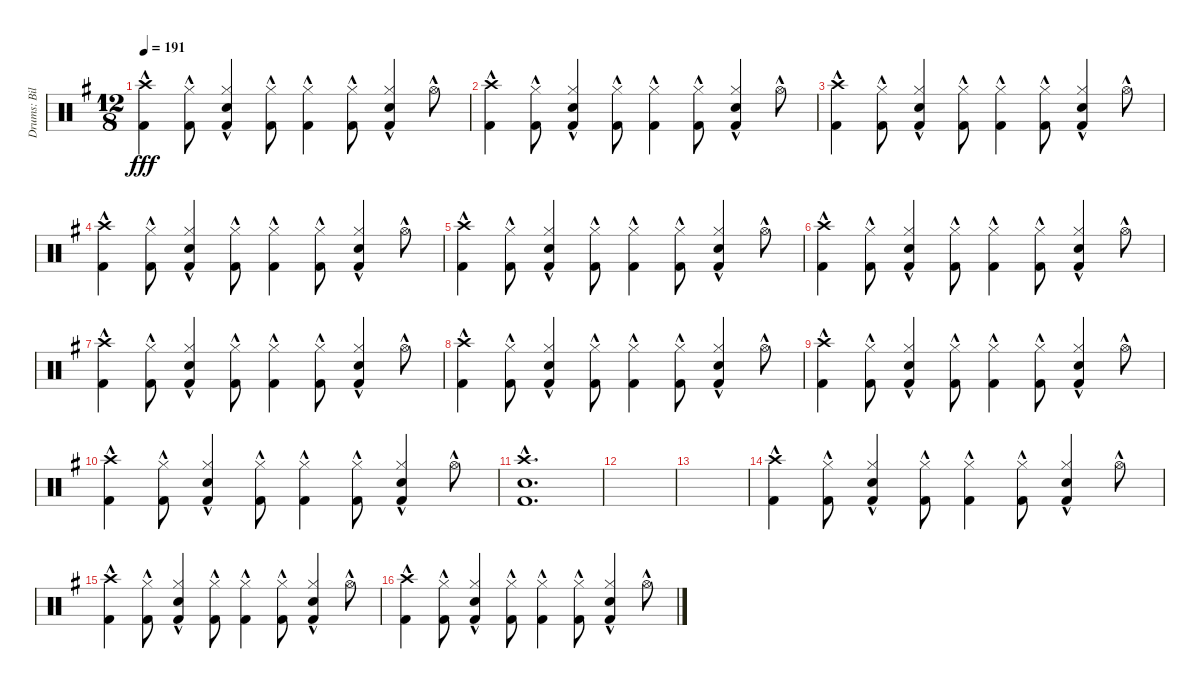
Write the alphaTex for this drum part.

\track ("Drums: Bill" "Drums: Bil") {instrument percussion}
\staff {score}
\articulation defaults
\ts (12 8)
\tempo 191
\clef neutral
\ks g
("Crash high (hit)"{hac} "Kick (hit) 2"{hac}).4{dy fff} ("Hi-Hat (closed)"{hac} "Kick (hit) 2"{hac}).8 ("Hi-Hat (closed)"{hac} "Snare (hit) 2"{hac} "Kick (hit) 2"{hac}).4 ("Hi-Hat (closed)"{hac} "Kick (hit) 2"{hac}).8 ("Hi-Hat (closed)"{hac} "Kick (hit) 2"{hac}).4 ("Hi-Hat (closed)"{hac} "Kick (hit) 2"{hac}).8 ("Hi-Hat (closed)"{hac} "Snare (hit) 2"{hac} "Kick (hit) 2"{hac}).4 "Hi-Hat (open)"{hac}.8 |
("Crash high (hit)"{hac} "Kick (hit) 2"{hac}).4 ("Hi-Hat (closed)"{hac} "Kick (hit) 2"{hac}).8 ("Hi-Hat (closed)"{hac} "Snare (hit) 2"{hac} "Kick (hit) 2"{hac}).4 ("Hi-Hat (closed)"{hac} "Kick (hit) 2"{hac}).8 ("Hi-Hat (closed)"{hac} "Kick (hit) 2"{hac}).4 ("Hi-Hat (closed)"{hac} "Kick (hit) 2"{hac}).8 ("Hi-Hat (closed)"{hac} "Snare (hit) 2"{hac} "Kick (hit) 2"{hac}).4 "Hi-Hat (open)"{hac}.8 |
("Crash high (hit)"{hac} "Kick (hit) 2"{hac}).4 ("Hi-Hat (closed)"{hac} "Kick (hit) 2"{hac}).8 ("Hi-Hat (closed)"{hac} "Snare (hit) 2"{hac} "Kick (hit) 2"{hac}).4 ("Hi-Hat (closed)"{hac} "Kick (hit) 2"{hac}).8 ("Hi-Hat (closed)"{hac} "Kick (hit) 2"{hac}).4 ("Hi-Hat (closed)"{hac} "Kick (hit) 2"{hac}).8 ("Hi-Hat (closed)"{hac} "Snare (hit) 2"{hac} "Kick (hit) 2"{hac}).4 "Hi-Hat (open)"{hac}.8 |
("Crash high (hit)"{hac} "Kick (hit) 2"{hac}).4 ("Hi-Hat (closed)"{hac} "Kick (hit) 2"{hac}).8 ("Hi-Hat (closed)"{hac} "Snare (hit) 2"{hac} "Kick (hit) 2"{hac}).4 ("Hi-Hat (closed)"{hac} "Kick (hit) 2"{hac}).8 ("Hi-Hat (closed)"{hac} "Kick (hit) 2"{hac}).4 ("Hi-Hat (closed)"{hac} "Kick (hit) 2"{hac}).8 ("Hi-Hat (closed)"{hac} "Snare (hit) 2"{hac} "Kick (hit) 2"{hac}).4 "Hi-Hat (open)"{hac}.8 |
("Crash high (hit)"{hac} "Kick (hit) 2"{hac}).4 ("Hi-Hat (closed)"{hac} "Kick (hit) 2"{hac}).8 ("Hi-Hat (closed)"{hac} "Snare (hit) 2"{hac} "Kick (hit) 2"{hac}).4 ("Hi-Hat (closed)"{hac} "Kick (hit) 2"{hac}).8 ("Hi-Hat (closed)"{hac} "Kick (hit) 2"{hac}).4 ("Hi-Hat (closed)"{hac} "Kick (hit) 2"{hac}).8 ("Hi-Hat (closed)"{hac} "Snare (hit) 2"{hac} "Kick (hit) 2"{hac}).4 "Hi-Hat (open)"{hac}.8 |
("Crash high (hit)"{hac} "Kick (hit) 2"{hac}).4 ("Hi-Hat (closed)"{hac} "Kick (hit) 2"{hac}).8 ("Hi-Hat (closed)"{hac} "Snare (hit) 2"{hac} "Kick (hit) 2"{hac}).4 ("Hi-Hat (closed)"{hac} "Kick (hit) 2"{hac}).8 ("Hi-Hat (closed)"{hac} "Kick (hit) 2"{hac}).4 ("Hi-Hat (closed)"{hac} "Kick (hit) 2"{hac}).8 ("Hi-Hat (closed)"{hac} "Snare (hit) 2"{hac} "Kick (hit) 2"{hac}).4 "Hi-Hat (open)"{hac}.8 |
("Crash high (hit)"{hac} "Kick (hit) 2"{hac}).4 ("Hi-Hat (closed)"{hac} "Kick (hit) 2"{hac}).8 ("Hi-Hat (closed)"{hac} "Snare (hit) 2"{hac} "Kick (hit) 2"{hac}).4 ("Hi-Hat (closed)"{hac} "Kick (hit) 2"{hac}).8 ("Hi-Hat (closed)"{hac} "Kick (hit) 2"{hac}).4 ("Hi-Hat (closed)"{hac} "Kick (hit) 2"{hac}).8 ("Hi-Hat (closed)"{hac} "Snare (hit) 2"{hac} "Kick (hit) 2"{hac}).4 "Hi-Hat (open)"{hac}.8 |
("Crash high (hit)"{hac} "Kick (hit) 2"{hac}).4 ("Hi-Hat (closed)"{hac} "Kick (hit) 2"{hac}).8 ("Hi-Hat (closed)"{hac} "Snare (hit) 2"{hac} "Kick (hit) 2"{hac}).4 ("Hi-Hat (closed)"{hac} "Kick (hit) 2"{hac}).8 ("Hi-Hat (closed)"{hac} "Kick (hit) 2"{hac}).4 ("Hi-Hat (closed)"{hac} "Kick (hit) 2"{hac}).8 ("Hi-Hat (closed)"{hac} "Snare (hit) 2"{hac} "Kick (hit) 2"{hac}).4 "Hi-Hat (open)"{hac}.8 |
("Crash high (hit)"{hac} "Kick (hit) 2"{hac}).4 ("Hi-Hat (closed)"{hac} "Kick (hit) 2"{hac}).8 ("Hi-Hat (closed)"{hac} "Snare (hit) 2"{hac} "Kick (hit) 2"{hac}).4 ("Hi-Hat (closed)"{hac} "Kick (hit) 2"{hac}).8 ("Hi-Hat (closed)"{hac} "Kick (hit) 2"{hac}).4 ("Hi-Hat (closed)"{hac} "Kick (hit) 2"{hac}).8 ("Hi-Hat (closed)"{hac} "Snare (hit) 2"{hac} "Kick (hit) 2"{hac}).4 "Hi-Hat (open)"{hac}.8 |
("Crash high (hit)"{hac} "Kick (hit) 2"{hac}).4 ("Hi-Hat (closed)"{hac} "Kick (hit) 2"{hac}).8 ("Hi-Hat (closed)"{hac} "Snare (hit) 2"{hac} "Kick (hit) 2"{hac}).4 ("Hi-Hat (closed)"{hac} "Kick (hit) 2"{hac}).8 ("Hi-Hat (closed)"{hac} "Kick (hit) 2"{hac}).4 ("Hi-Hat (closed)"{hac} "Kick (hit) 2"{hac}).8 ("Hi-Hat (closed)"{hac} "Snare (hit) 2"{hac} "Kick (hit) 2"{hac}).4 "Hi-Hat (open)"{hac}.8 |
("Crash high (hit)"{hac} "Snare (hit) 2"{hac} "Kick (hit) 2"{hac}).1{d} |
|
|
("Crash high (hit)"{hac} "Kick (hit) 2"{hac}).4 ("Hi-Hat (closed)"{hac} "Kick (hit) 2"{hac}).8 ("Hi-Hat (closed)"{hac} "Snare (hit) 2"{hac} "Kick (hit) 2"{hac}).4 ("Hi-Hat (closed)"{hac} "Kick (hit) 2"{hac}).8 ("Hi-Hat (closed)"{hac} "Kick (hit) 2"{hac}).4 ("Hi-Hat (closed)"{hac} "Kick (hit) 2"{hac}).8 ("Hi-Hat (closed)"{hac} "Snare (hit) 2"{hac} "Kick (hit) 2"{hac}).4 "Hi-Hat (open)"{hac}.8 |
("Crash high (hit)"{hac} "Kick (hit) 2"{hac}).4 ("Hi-Hat (closed)"{hac} "Kick (hit) 2"{hac}).8 ("Hi-Hat (closed)"{hac} "Snare (hit) 2"{hac} "Kick (hit) 2"{hac}).4 ("Hi-Hat (closed)"{hac} "Kick (hit) 2"{hac}).8 ("Hi-Hat (closed)"{hac} "Kick (hit) 2"{hac}).4 ("Hi-Hat (closed)"{hac} "Kick (hit) 2"{hac}).8 ("Hi-Hat (closed)"{hac} "Snare (hit) 2"{hac} "Kick (hit) 2"{hac}).4 "Hi-Hat (open)"{hac}.8 |
("Crash high (hit)"{hac} "Kick (hit) 2"{hac}).4 ("Hi-Hat (closed)"{hac} "Kick (hit) 2"{hac}).8 ("Hi-Hat (closed)"{hac} "Snare (hit) 2"{hac} "Kick (hit) 2"{hac}).4 ("Hi-Hat (closed)"{hac} "Kick (hit) 2"{hac}).8 ("Hi-Hat (closed)"{hac} "Kick (hit) 2"{hac}).4 ("Hi-Hat (closed)"{hac} "Kick (hit) 2"{hac}).8 ("Hi-Hat (closed)"{hac} "Snare (hit) 2"{hac} "Kick (hit) 2"{hac}).4 "Hi-Hat (open)"{hac}.8
